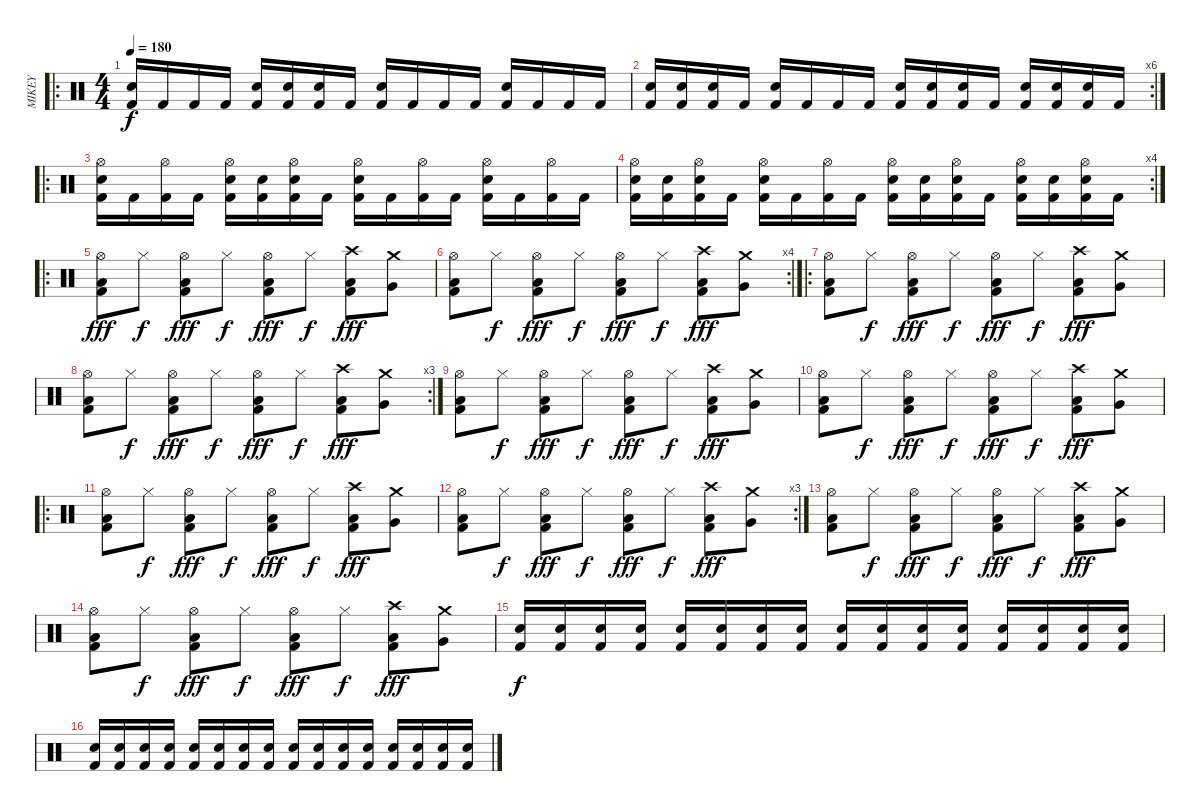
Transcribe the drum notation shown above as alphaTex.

\track ("MIKEY" "MIKEY") {instrument percussion}
\staff {score}
\articulation defaults
\ro
\ts (4 4)
\tempo 180
\clef neutral
\ks c
("Snare (hit) 2" "Kick (hit) 2").16{dy f} "Kick (hit) 2".16 "Kick (hit) 2".16 "Kick (hit) 2".16 ("Snare (hit) 2" "Kick (hit) 2").16 ("Snare (hit) 2" "Kick (hit) 2").16 ("Snare (hit) 2" "Kick (hit) 2").16 "Kick (hit) 2".16 ("Snare (hit) 2" "Kick (hit) 2").16 "Kick (hit) 2".16 "Kick (hit) 2".16 "Kick (hit) 2".16 ("Snare (hit) 2" "Kick (hit) 2").16 "Kick (hit) 2".16 "Kick (hit) 2".16 "Kick (hit) 2".16 |
\rc 6
("Snare (hit) 2" "Kick (hit) 2").16 ("Snare (hit) 2" "Kick (hit) 2").16 ("Snare (hit) 2" "Kick (hit) 2").16 "Kick (hit) 2".16 ("Snare (hit) 2" "Kick (hit) 2").16 "Kick (hit) 2".16 "Kick (hit) 2".16 "Kick (hit) 2".16 ("Snare (hit) 2" "Kick (hit) 2").16 ("Snare (hit) 2" "Kick (hit) 2").16 ("Snare (hit) 2" "Kick (hit) 2").16 "Kick (hit) 2".16 ("Snare (hit) 2" "Kick (hit) 2").16 ("Snare (hit) 2" "Kick (hit) 2").16 ("Snare (hit) 2" "Kick (hit) 2").16 "Kick (hit) 2".16 |
\ro
("Hi-Hat (open)" "Snare (hit) 2" "Kick (hit) 2").16 "Kick (hit) 2".16 ("Hi-Hat (open)" "Kick (hit) 2").16 "Kick (hit) 2".16 ("Hi-Hat (open)" "Snare (hit) 2" "Kick (hit) 2").16 ("Snare (hit) 2" "Kick (hit) 2").16 ("Hi-Hat (open)" "Snare (hit) 2" "Kick (hit) 2").16 "Kick (hit) 2".16 ("Hi-Hat (open)" "Snare (hit) 2" "Kick (hit) 2").16 "Kick (hit) 2".16 ("Hi-Hat (open)" "Kick (hit) 2").16 "Kick (hit) 2".16 ("Hi-Hat (open)" "Snare (hit) 2" "Kick (hit) 2").16 "Kick (hit) 2".16 ("Hi-Hat (open)" "Kick (hit) 2").16 "Kick (hit) 2".16 |
\rc 4
("Hi-Hat (open)" "Snare (hit) 2" "Kick (hit) 2").16 ("Snare (hit) 2" "Kick (hit) 2").16 ("Hi-Hat (open)" "Snare (hit) 2" "Kick (hit) 2").16 "Kick (hit) 2".16 ("Hi-Hat (open)" "Snare (hit) 2" "Kick (hit) 2").16 "Kick (hit) 2".16 ("Hi-Hat (open)" "Kick (hit) 2").16 "Kick (hit) 2".16 ("Hi-Hat (open)" "Snare (hit) 2" "Kick (hit) 2").16 ("Snare (hit) 2" "Kick (hit) 2").16 ("Hi-Hat (open)" "Snare (hit) 2" "Kick (hit) 2").16 "Kick (hit) 2".16 ("Hi-Hat (open)" "Snare (hit) 2" "Kick (hit) 2").16 ("Snare (hit) 2" "Kick (hit) 2").16 ("Hi-Hat (open)" "Snare (hit) 2" "Kick (hit) 2").16 "Kick (hit) 2".16 |
\ro
("Low Floor Tom (hit)" "Kick (hit) 2" "Hi-Hat (open)").8{dy fff} "Hi-Hat (closed)".8{dy f} ("Low Floor Tom (hit)" "Kick (hit) 2" "Hi-Hat (open)").8{dy fff} "Hi-Hat (closed)".8{dy f} ("Low Floor Tom (hit)" "Kick (hit) 2" "Hi-Hat (open)").8{dy fff} "Hi-Hat (closed)".8{dy f} ("Low Floor Tom (hit)" "Kick (hit) 2" "Crash high (hit)").8{dy fff} ("Very Low Tom (hit)" "Crash medium (hit)").8 |
\rc 4
("Low Floor Tom (hit)" "Kick (hit) 2" "Hi-Hat (open)").8 "Hi-Hat (closed)".8{dy f} ("Low Floor Tom (hit)" "Kick (hit) 2" "Hi-Hat (open)").8{dy fff} "Hi-Hat (closed)".8{dy f} ("Low Floor Tom (hit)" "Kick (hit) 2" "Hi-Hat (open)").8{dy fff} "Hi-Hat (closed)".8{dy f} ("Low Floor Tom (hit)" "Kick (hit) 2" "Crash high (hit)").8{dy fff} ("Very Low Tom (hit)" "Crash medium (hit)").8 |
\ro
("Low Floor Tom (hit)" "Kick (hit) 2" "Hi-Hat (open)").8 "Hi-Hat (closed)".8{dy f} ("Low Floor Tom (hit)" "Kick (hit) 2" "Hi-Hat (open)").8{dy fff} "Hi-Hat (closed)".8{dy f} ("Low Floor Tom (hit)" "Kick (hit) 2" "Hi-Hat (open)").8{dy fff} "Hi-Hat (closed)".8{dy f} ("Low Floor Tom (hit)" "Kick (hit) 2" "Crash high (hit)").8{dy fff} ("Very Low Tom (hit)" "Crash medium (hit)").8 |
\rc 3
("Low Floor Tom (hit)" "Kick (hit) 2" "Hi-Hat (open)").8 "Hi-Hat (closed)".8{dy f} ("Low Floor Tom (hit)" "Kick (hit) 2" "Hi-Hat (open)").8{dy fff} "Hi-Hat (closed)".8{dy f} ("Low Floor Tom (hit)" "Kick (hit) 2" "Hi-Hat (open)").8{dy fff} "Hi-Hat (closed)".8{dy f} ("Low Floor Tom (hit)" "Kick (hit) 2" "Crash high (hit)").8{dy fff} ("Very Low Tom (hit)" "Crash medium (hit)").8 |
("Low Floor Tom (hit)" "Kick (hit) 2" "Hi-Hat (open)").8 "Hi-Hat (closed)".8{dy f} ("Low Floor Tom (hit)" "Kick (hit) 2" "Hi-Hat (open)").8{dy fff} "Hi-Hat (closed)".8{dy f} ("Low Floor Tom (hit)" "Kick (hit) 2" "Hi-Hat (open)").8{dy fff} "Hi-Hat (closed)".8{dy f} ("Low Floor Tom (hit)" "Kick (hit) 2" "Crash high (hit)").8{dy fff} ("Very Low Tom (hit)" "Crash medium (hit)").8 |
("Low Floor Tom (hit)" "Kick (hit) 2" "Hi-Hat (open)").8 "Hi-Hat (closed)".8{dy f} ("Low Floor Tom (hit)" "Kick (hit) 2" "Hi-Hat (open)").8{dy fff} "Hi-Hat (closed)".8{dy f} ("Low Floor Tom (hit)" "Kick (hit) 2" "Hi-Hat (open)").8{dy fff} "Hi-Hat (closed)".8{dy f} ("Low Floor Tom (hit)" "Kick (hit) 2" "Crash high (hit)").8{dy fff} ("Very Low Tom (hit)" "Crash medium (hit)").8 |
\ro
("Low Floor Tom (hit)" "Kick (hit) 2" "Hi-Hat (open)").8 "Hi-Hat (closed)".8{dy f} ("Low Floor Tom (hit)" "Kick (hit) 2" "Hi-Hat (open)").8{dy fff} "Hi-Hat (closed)".8{dy f} ("Low Floor Tom (hit)" "Kick (hit) 2" "Hi-Hat (open)").8{dy fff} "Hi-Hat (closed)".8{dy f} ("Low Floor Tom (hit)" "Kick (hit) 2" "Crash high (hit)").8{dy fff} ("Very Low Tom (hit)" "Crash medium (hit)").8 |
\rc 3
("Low Floor Tom (hit)" "Kick (hit) 2" "Hi-Hat (open)").8 "Hi-Hat (closed)".8{dy f} ("Low Floor Tom (hit)" "Kick (hit) 2" "Hi-Hat (open)").8{dy fff} "Hi-Hat (closed)".8{dy f} ("Low Floor Tom (hit)" "Kick (hit) 2" "Hi-Hat (open)").8{dy fff} "Hi-Hat (closed)".8{dy f} ("Low Floor Tom (hit)" "Kick (hit) 2" "Crash high (hit)").8{dy fff} ("Very Low Tom (hit)" "Crash medium (hit)").8 |
("Low Floor Tom (hit)" "Kick (hit) 2" "Hi-Hat (open)").8 "Hi-Hat (closed)".8{dy f} ("Low Floor Tom (hit)" "Kick (hit) 2" "Hi-Hat (open)").8{dy fff} "Hi-Hat (closed)".8{dy f} ("Low Floor Tom (hit)" "Kick (hit) 2" "Hi-Hat (open)").8{dy fff} "Hi-Hat (closed)".8{dy f} ("Low Floor Tom (hit)" "Kick (hit) 2" "Crash high (hit)").8{dy fff} ("Very Low Tom (hit)" "Crash medium (hit)").8 |
("Low Floor Tom (hit)" "Kick (hit) 2" "Hi-Hat (open)").8 "Hi-Hat (closed)".8{dy f} ("Low Floor Tom (hit)" "Kick (hit) 2" "Hi-Hat (open)").8{dy fff} "Hi-Hat (closed)".8{dy f} ("Low Floor Tom (hit)" "Kick (hit) 2" "Hi-Hat (open)").8{dy fff} "Hi-Hat (closed)".8{dy f} ("Low Floor Tom (hit)" "Kick (hit) 2" "Crash high (hit)").8{dy fff} ("Very Low Tom (hit)" "Crash medium (hit)").8 |
("Kick (hit) 2" "Electric Snare (hit)").16{dy f} ("Kick (hit) 2" "Electric Snare (hit)").16 ("Kick (hit) 2" "Electric Snare (hit)").16 ("Kick (hit) 2" "Electric Snare (hit)").16 ("Kick (hit) 2" "Electric Snare (hit)").16 ("Kick (hit) 2" "Electric Snare (hit)").16 ("Kick (hit) 2" "Electric Snare (hit)").16 ("Kick (hit) 2" "Electric Snare (hit)").16 ("Kick (hit) 2" "Electric Snare (hit)").16 ("Kick (hit) 2" "Electric Snare (hit)").16 ("Kick (hit) 2" "Electric Snare (hit)").16 ("Kick (hit) 2" "Electric Snare (hit)").16 ("Kick (hit) 2" "Electric Snare (hit)").16 ("Kick (hit) 2" "Electric Snare (hit)").16 ("Kick (hit) 2" "Electric Snare (hit)").16 ("Kick (hit) 2" "Electric Snare (hit)").16 |
("Kick (hit) 2" "Electric Snare (hit)").16 ("Kick (hit) 2" "Electric Snare (hit)").16 ("Kick (hit) 2" "Electric Snare (hit)").16 ("Kick (hit) 2" "Electric Snare (hit)").16 ("Kick (hit) 2" "Electric Snare (hit)").16 ("Kick (hit) 2" "Electric Snare (hit)").16 ("Kick (hit) 2" "Electric Snare (hit)").16 ("Kick (hit) 2" "Electric Snare (hit)").16 ("Kick (hit) 2" "Electric Snare (hit)").16 ("Kick (hit) 2" "Electric Snare (hit)").16 ("Kick (hit) 2" "Electric Snare (hit)").16 ("Kick (hit) 2" "Electric Snare (hit)").16 ("Kick (hit) 2" "Electric Snare (hit)").16 ("Kick (hit) 2" "Electric Snare (hit)").16 ("Kick (hit) 2" "Electric Snare (hit)").16 ("Kick (hit) 2" "Electric Snare (hit)").16
